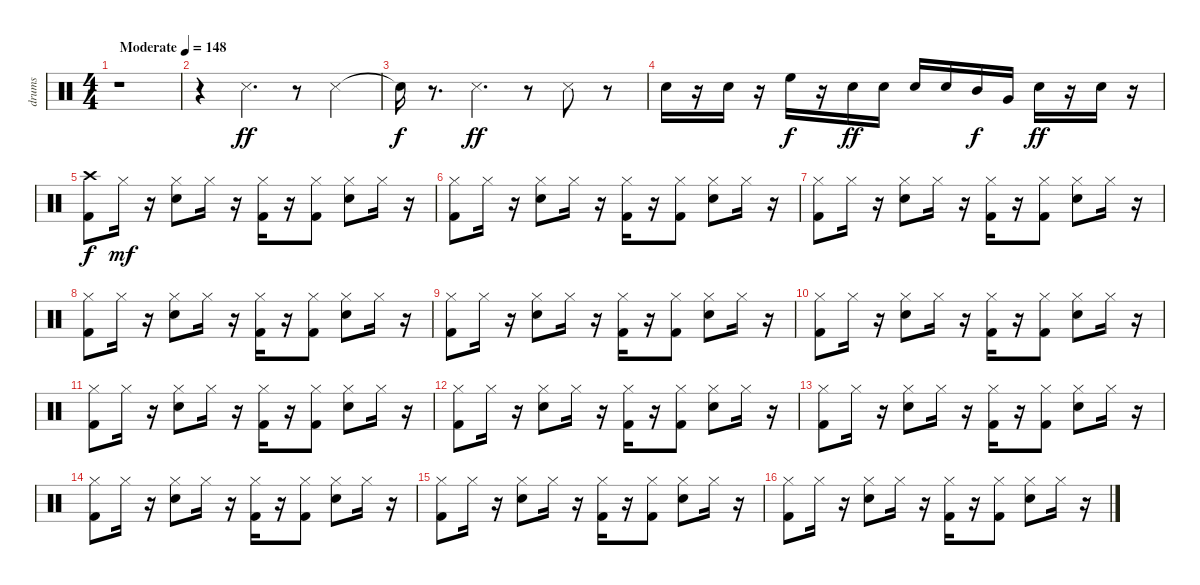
\track ("drums" "drums") {instrument percussion}
\staff {score}
\articulation defaults
\ts (4 4)
\tempo (148 "Moderate")
\clef neutral
\ks c
r.1{dy ff} |
r.4 "Snare (side stick) 3".4{d} r.8 "Snare (side stick) 3".4 |
"Snare (hit)"{t}.16{dy f} r.8{d} "Snare (side stick) 3".4{d dy ff} r.8 "Snare (side stick) 3".8 r.8 |
"Snare (hit) 2".16 r.16 "Snare (hit) 2".16 r.16 "High Floor Tom (hit)".16{dy f} r.16 "Snare (hit) 2".16{dy ff} "Snare (hit) 2".16 "Snare (hit) 2".16 "Snare (hit) 2".16 "Mid Tom (hit)".16{dy f} "Very Low Tom (hit)".16 "Snare (hit) 2".16{dy ff} r.16 "Snare (hit) 2".16 r.16 |
("Crash high (hit)" "Kick (hit) 2").8{dy f} "Hi-Hat (closed)".16{dy mf} r.16 ("Snare (hit) 2" "Hi-Hat (closed)").8 "Hi-Hat (closed)".16 r.16 ("Hi-Hat (closed)" "Kick (hit) 2").16 r.16 ("Hi-Hat (closed)" "Kick (hit) 2").8 ("Snare (hit) 2" "Hi-Hat (closed)").8 "Hi-Hat (closed)".16 r.16 |
("Hi-Hat (closed)" "Kick (hit) 2").8 "Hi-Hat (closed)".16 r.16 ("Snare (hit) 2" "Hi-Hat (closed)").8 "Hi-Hat (closed)".16 r.16 ("Hi-Hat (closed)" "Kick (hit) 2").16 r.16 ("Hi-Hat (closed)" "Kick (hit) 2").8 ("Snare (hit) 2" "Hi-Hat (closed)").8 "Hi-Hat (closed)".16 r.16 |
("Hi-Hat (closed)" "Kick (hit) 2").8 "Hi-Hat (closed)".16 r.16 ("Snare (hit) 2" "Hi-Hat (closed)").8 "Hi-Hat (closed)".16 r.16 ("Hi-Hat (closed)" "Kick (hit) 2").16 r.16 ("Hi-Hat (closed)" "Kick (hit) 2").8 ("Snare (hit) 2" "Hi-Hat (closed)").8 "Hi-Hat (closed)".16 r.16 |
("Hi-Hat (closed)" "Kick (hit) 2").8 "Hi-Hat (closed)".16 r.16 ("Snare (hit) 2" "Hi-Hat (closed)").8 "Hi-Hat (closed)".16 r.16 ("Hi-Hat (closed)" "Kick (hit) 2").16 r.16 ("Hi-Hat (closed)" "Kick (hit) 2").8 ("Snare (hit) 2" "Hi-Hat (closed)").8 "Hi-Hat (closed)".16 r.16 |
("Hi-Hat (closed)" "Kick (hit) 2").8 "Hi-Hat (closed)".16 r.16 ("Snare (hit) 2" "Hi-Hat (closed)").8 "Hi-Hat (closed)".16 r.16 ("Hi-Hat (closed)" "Kick (hit) 2").16 r.16 ("Hi-Hat (closed)" "Kick (hit) 2").8 ("Snare (hit) 2" "Hi-Hat (closed)").8 "Hi-Hat (closed)".16 r.16 |
("Hi-Hat (closed)" "Kick (hit) 2").8 "Hi-Hat (closed)".16 r.16 ("Snare (hit) 2" "Hi-Hat (closed)").8 "Hi-Hat (closed)".16 r.16 ("Hi-Hat (closed)" "Kick (hit) 2").16 r.16 ("Hi-Hat (closed)" "Kick (hit) 2").8 ("Snare (hit) 2" "Hi-Hat (closed)").8 "Hi-Hat (closed)".16 r.16 |
("Hi-Hat (closed)" "Kick (hit) 2").8 "Hi-Hat (closed)".16 r.16 ("Snare (hit) 2" "Hi-Hat (closed)").8 "Hi-Hat (closed)".16 r.16 ("Hi-Hat (closed)" "Kick (hit) 2").16 r.16 ("Hi-Hat (closed)" "Kick (hit) 2").8 ("Snare (hit) 2" "Hi-Hat (closed)").8 "Hi-Hat (closed)".16 r.16 |
("Hi-Hat (closed)" "Kick (hit) 2").8 "Hi-Hat (closed)".16 r.16 ("Snare (hit) 2" "Hi-Hat (closed)").8 "Hi-Hat (closed)".16 r.16 ("Hi-Hat (closed)" "Kick (hit) 2").16 r.16 ("Hi-Hat (closed)" "Kick (hit) 2").8 ("Snare (hit) 2" "Hi-Hat (closed)").8 "Hi-Hat (closed)".16 r.16 |
("Hi-Hat (closed)" "Kick (hit) 2").8 "Hi-Hat (closed)".16 r.16 ("Snare (hit) 2" "Hi-Hat (closed)").8 "Hi-Hat (closed)".16 r.16 ("Hi-Hat (closed)" "Kick (hit) 2").16 r.16 ("Hi-Hat (closed)" "Kick (hit) 2").8 ("Snare (hit) 2" "Hi-Hat (closed)").8 "Hi-Hat (closed)".16 r.16 |
("Hi-Hat (closed)" "Kick (hit) 2").8 "Hi-Hat (closed)".16 r.16 ("Snare (hit) 2" "Hi-Hat (closed)").8 "Hi-Hat (closed)".16 r.16 ("Hi-Hat (closed)" "Kick (hit) 2").16 r.16 ("Hi-Hat (closed)" "Kick (hit) 2").8 ("Snare (hit) 2" "Hi-Hat (closed)").8 "Hi-Hat (closed)".16 r.16 |
("Hi-Hat (closed)" "Kick (hit) 2").8 "Hi-Hat (closed)".16 r.16 ("Snare (hit) 2" "Hi-Hat (closed)").8 "Hi-Hat (closed)".16 r.16 ("Hi-Hat (closed)" "Kick (hit) 2").16 r.16 ("Hi-Hat (closed)" "Kick (hit) 2").8 ("Snare (hit) 2" "Hi-Hat (closed)").8 "Hi-Hat (closed)".16 r.16 |
("Hi-Hat (closed)" "Kick (hit) 2").8 "Hi-Hat (closed)".16 r.16 ("Snare (hit) 2" "Hi-Hat (closed)").8 "Hi-Hat (closed)".16 r.16 ("Hi-Hat (closed)" "Kick (hit) 2").16 r.16 ("Hi-Hat (closed)" "Kick (hit) 2").8 ("Snare (hit) 2" "Hi-Hat (closed)").8 "Hi-Hat (closed)".16 r.16
